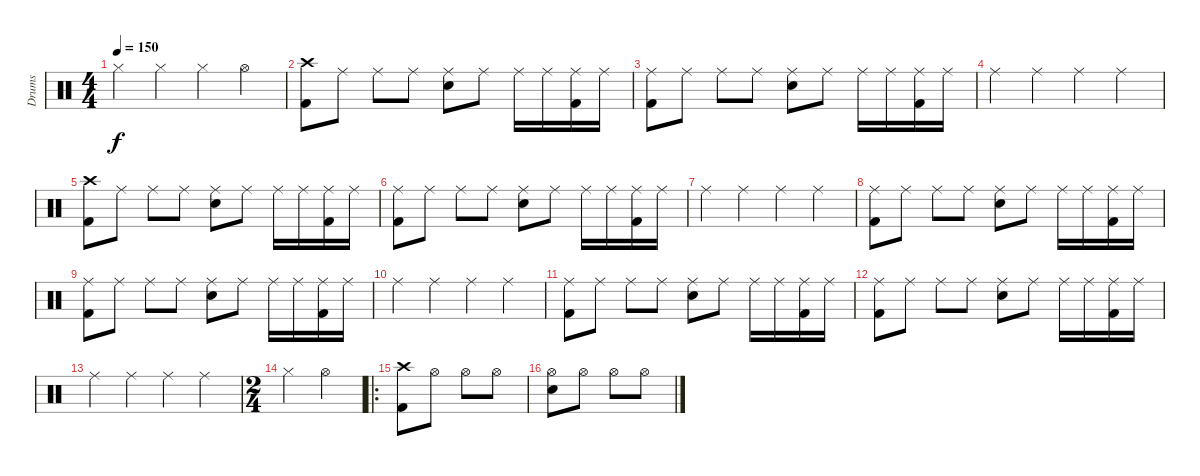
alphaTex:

\track ("Drums" "Drums") {instrument percussion}
\staff {score}
\articulation defaults
\ts (4 4)
\tempo 150
\clef neutral
\ks c "Hi-Hat (closed)".4{dy f} "Hi-Hat (closed)".4 "Hi-Hat (closed)".4 "Hi-Hat (open)".4
|
("Crash high (hit)" "Kick (hit) 2").8 "Ride (middle)".8 "Ride (middle)".8 "Ride (middle)".8 ("Ride (middle)" "Snare (hit) 2").8 "Ride (middle)".8 "Ride (middle)".16 "Ride (middle)".16 ("Ride (middle)" "Kick (hit) 2").16 "Ride (middle)".16 |
("Ride (middle)" "Kick (hit) 2").8 "Ride (middle)".8 "Ride (middle)".8 "Ride (middle)".8 ("Ride (middle)" "Snare (hit) 2").8 "Ride (middle)".8 "Ride (middle)".16 "Ride (middle)".16 ("Ride (middle)" "Kick (hit) 2").16 "Ride (middle)".16 |
"Ride (middle)".4 "Ride (middle)".4 "Ride (middle)".4 "Ride (middle)".4 |
("Crash high (hit)" "Kick (hit) 2").8 "Ride (middle)".8 "Ride (middle)".8 "Ride (middle)".8 ("Ride (middle)" "Snare (hit) 2").8 "Ride (middle)".8 "Ride (middle)".16 "Ride (middle)".16 ("Ride (middle)" "Kick (hit) 2").16 "Ride (middle)".16 |
("Ride (middle)" "Kick (hit) 2").8 "Ride (middle)".8 "Ride (middle)".8 "Ride (middle)".8 ("Ride (middle)" "Snare (hit) 2").8 "Ride (middle)".8 "Ride (middle)".16 "Ride (middle)".16 ("Ride (middle)" "Kick (hit) 2").16 "Ride (middle)".16 |
"Ride (middle)".4 "Ride (middle)".4 "Ride (middle)".4 "Ride (middle)".4 |
("Ride (middle)" "Kick (hit) 2").8 "Ride (middle)".8 "Ride (middle)".8 "Ride (middle)".8 ("Ride (middle)" "Snare (hit) 2").8 "Ride (middle)".8 "Ride (middle)".16 "Ride (middle)".16 ("Ride (middle)" "Kick (hit) 2").16 "Ride (middle)".16 |
("Ride (middle)" "Kick (hit) 2").8 "Ride (middle)".8 "Ride (middle)".8 "Ride (middle)".8 ("Ride (middle)" "Snare (hit) 2").8 "Ride (middle)".8 "Ride (middle)".16 "Ride (middle)".16 ("Ride (middle)" "Kick (hit) 2").16 "Ride (middle)".16 |
"Ride (middle)".4 "Ride (middle)".4 "Ride (middle)".4 "Ride (middle)".4 |
("Ride (middle)" "Kick (hit) 2").8 "Ride (middle)".8 "Ride (middle)".8 "Ride (middle)".8 ("Ride (middle)" "Snare (hit) 2").8 "Ride (middle)".8 "Ride (middle)".16 "Ride (middle)".16 ("Ride (middle)" "Kick (hit) 2").16 "Ride (middle)".16 |
("Ride (middle)" "Kick (hit) 2").8 "Ride (middle)".8 "Ride (middle)".8 "Ride (middle)".8 ("Ride (middle)" "Snare (hit) 2").8 "Ride (middle)".8 "Ride (middle)".16 "Ride (middle)".16 ("Ride (middle)" "Kick (hit) 2").16 "Ride (middle)".16 |
"Ride (middle)".4 "Ride (middle)".4 "Ride (middle)".4 "Ride (middle)".4 |
\ts (2 4)
"Hi-Hat (closed)".4 "Hi-Hat (open)".4 |
\ro
("Crash high (hit)" "Kick (hit) 2").8 "Hi-Hat (open)".8 "Hi-Hat (open)".8 "Hi-Hat (open)".8 |
("Hi-Hat (open)" "Snare (hit) 2").8 "Hi-Hat (open)".8 "Hi-Hat (open)".8 "Hi-Hat (open)".8
